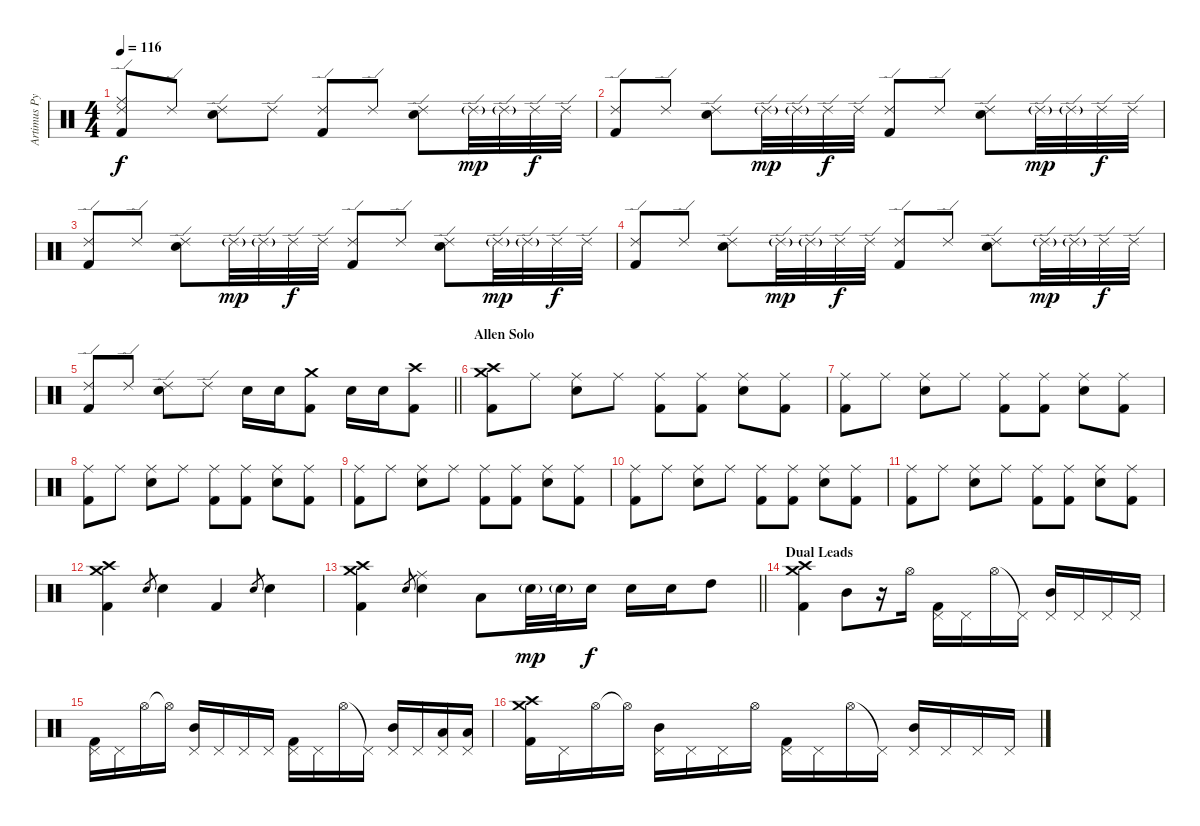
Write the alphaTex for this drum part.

\track ("Artimus Pyle - Drums and Percussion" "Artimus Py") {instrument percussion}
\staff {score}
\articulation defaults
\ts (4 4)
\tempo 116
\clef neutral
\ks c
("Ride (edge) 2" "Ride (middle)" "Kick (hit) 2").8{dy f} "Ride (edge) 2".8 ("Ride (edge) 2" "Snare (hit) 2").8 "Ride (edge) 2".8 ("Ride (edge) 2" "Kick (hit) 2").8 "Ride (edge) 2".8 ("Ride (edge) 2" "Snare (hit) 2").8 "Ride (edge) 2"{g}.32{dy mp} "Ride (edge) 2"{g}.32 "Ride (edge) 2".32{dy f} "Ride (edge) 2".32 |
("Ride (edge) 2" "Kick (hit) 2").8 "Ride (edge) 2".8 ("Ride (edge) 2" "Snare (hit) 2").8 "Ride (edge) 2"{g}.32{dy mp} "Ride (edge) 2"{g}.32 "Ride (edge) 2".32{dy f} "Ride (edge) 2".32 ("Ride (edge) 2" "Kick (hit) 2").8 "Ride (edge) 2".8 ("Ride (edge) 2" "Snare (hit) 2").8 "Ride (edge) 2"{g}.32{dy mp} "Ride (edge) 2"{g}.32 "Ride (edge) 2".32{dy f} "Ride (edge) 2".32 |
("Ride (edge) 2" "Kick (hit) 2").8 "Ride (edge) 2".8 ("Ride (edge) 2" "Snare (hit) 2").8 "Ride (edge) 2"{g}.32{dy mp} "Ride (edge) 2"{g}.32 "Ride (edge) 2".32{dy f} "Ride (edge) 2".32 ("Ride (edge) 2" "Kick (hit) 2").8 "Ride (edge) 2".8 ("Ride (edge) 2" "Snare (hit) 2").8 "Ride (edge) 2"{g}.32{dy mp} "Ride (edge) 2"{g}.32 "Ride (edge) 2".32{dy f} "Ride (edge) 2".32 |
("Ride (edge) 2" "Kick (hit) 2").8 "Ride (edge) 2".8 ("Ride (edge) 2" "Snare (hit) 2").8 "Ride (edge) 2"{g}.32{dy mp} "Ride (edge) 2"{g}.32 "Ride (edge) 2".32{dy f} "Ride (edge) 2".32 ("Ride (edge) 2" "Kick (hit) 2").8 "Ride (edge) 2".8 ("Ride (edge) 2" "Snare (hit) 2").8 "Ride (edge) 2"{g}.32{dy mp} "Ride (edge) 2"{g}.32 "Ride (edge) 2".32{dy f} "Ride (edge) 2".32 |
\barLineRight lightlight
("Ride (edge) 2" "Kick (hit) 2").8 "Ride (edge) 2".8 ("Ride (edge) 2" "Snare (hit) 2").8 "Ride (edge) 2".8 "Snare (hit) 2".16 "Snare (hit) 2".16 ("Crash medium (hit)" "Kick (hit) 2").8 "Snare (hit) 2".16 "Snare (hit) 2".16 ("Crash high (hit)" "Kick (hit) 2").8 |
\section ("" "Allen Solo")
("Crash medium (hit)" "Crash high (hit)" "Kick (hit) 2").8 "Ride (middle)".8 ("Ride (middle)" "Snare (hit) 2").8 "Ride (middle)".8 ("Ride (middle)" "Kick (hit) 2").8 ("Ride (middle)" "Kick (hit) 2").8 ("Ride (middle)" "Snare (hit) 2").8 ("Ride (middle)" "Kick (hit) 2").8 |
("Ride (middle)" "Kick (hit) 2").8 "Ride (middle)".8 ("Ride (middle)" "Snare (hit) 2").8 "Ride (middle)".8 ("Ride (middle)" "Kick (hit) 2").8 ("Ride (middle)" "Kick (hit) 2").8 ("Ride (middle)" "Snare (hit) 2").8 ("Ride (middle)" "Kick (hit) 2").8 |
("Ride (middle)" "Kick (hit) 2").8 "Ride (middle)".8 ("Ride (middle)" "Snare (hit) 2").8 "Ride (middle)".8 ("Ride (middle)" "Kick (hit) 2").8 ("Ride (middle)" "Kick (hit) 2").8 ("Ride (middle)" "Snare (hit) 2").8 ("Ride (middle)" "Kick (hit) 2").8 |
("Ride (middle)" "Kick (hit) 2").8 "Ride (middle)".8 ("Ride (middle)" "Snare (hit) 2").8 "Ride (middle)".8 ("Ride (middle)" "Kick (hit) 2").8 ("Ride (middle)" "Kick (hit) 2").8 ("Ride (middle)" "Snare (hit) 2").8 ("Ride (middle)" "Kick (hit) 2").8 |
("Ride (middle)" "Kick (hit) 2").8 "Ride (middle)".8 ("Ride (middle)" "Snare (hit) 2").8 "Ride (middle)".8 ("Ride (middle)" "Kick (hit) 2").8 ("Ride (middle)" "Kick (hit) 2").8 ("Ride (middle)" "Snare (hit) 2").8 ("Ride (middle)" "Kick (hit) 2").8 |
("Ride (middle)" "Kick (hit) 2").8 "Ride (middle)".8 ("Ride (middle)" "Snare (hit) 2").8 "Ride (middle)".8 ("Ride (middle)" "Kick (hit) 2").8 ("Ride (middle)" "Kick (hit) 2").8 ("Ride (middle)" "Snare (hit) 2").8 ("Ride (middle)" "Kick (hit) 2").8 |
("Crash medium (hit)" "Crash high (hit)" "Kick (hit) 2").4 "Snare (hit) 2".8{gr} "Snare (hit) 2".4 "Kick (hit) 2".4 "Snare (hit) 2".8{gr} "Snare (hit) 2".4 |
\barLineRight lightlight
("Crash medium (hit)" "Crash high (hit)" "Kick (hit) 2").4 "Snare (hit) 2".8{gr} ("Ride (middle)" "Snare (hit) 2").4 "Low Floor Tom (hit)".8 "Snare (hit) 2"{g}.32{dy mp} "Snare (hit) 2"{g}.32 "Snare (hit) 2".16{dy f} "Snare (hit) 2".16 "Snare (hit) 2".16 "High Tom (hit)".8 |
\section ("" "Dual Leads")
("Crash medium (hit)" "Crash high (hit)" "Kick (hit) 2").4 "Mid Tom (hit)".8 r.16 "Hi-Hat (open)".16 ("Pedal Hi-Hat (hit)" "Kick (hit) 2").16 "Pedal Hi-Hat (hit)".16 "Hi-Hat (open)".16 "Pedal Hi-Hat (hit)"{t}.16 ("Pedal Hi-Hat (hit)" "Mid Tom (hit)").16 "Pedal Hi-Hat (hit)".16 "Pedal Hi-Hat (hit)".16 "Pedal Hi-Hat (hit)".16 |
("Pedal Hi-Hat (hit)" "Kick (hit) 2").16 "Pedal Hi-Hat (hit)".16 "Hi-Hat (open)".16 "Hi-Hat (open)"{t}.16 ("Pedal Hi-Hat (hit)" "Mid Tom (hit)").16 "Pedal Hi-Hat (hit)".16 "Pedal Hi-Hat (hit)".16 "Pedal Hi-Hat (hit)".16 ("Pedal Hi-Hat (hit)" "Kick (hit) 2").16 "Pedal Hi-Hat (hit)".16 "Hi-Hat (open)".16 "Pedal Hi-Hat (hit)"{t}.16 ("Pedal Hi-Hat (hit)" "Mid Tom (hit)").16 "Pedal Hi-Hat (hit)".16 ("Pedal Hi-Hat (hit)" "Low Floor Tom (hit)").16 ("Pedal Hi-Hat (hit)" "Low Floor Tom (hit)").16 |
("Crash high (hit)" "Crash medium (hit)" "Kick (hit) 2").16 "Pedal Hi-Hat (hit)".16 "Hi-Hat (open)".16 "Hi-Hat (open)"{t}.16 ("Pedal Hi-Hat (hit)" "Mid Tom (hit)").16 "Pedal Hi-Hat (hit)".16 "Pedal Hi-Hat (hit)".16 "Hi-Hat (open)".16 ("Pedal Hi-Hat (hit)" "Kick (hit) 2").16 "Pedal Hi-Hat (hit)".16 "Hi-Hat (open)".16 "Pedal Hi-Hat (hit)"{t}.16 ("Pedal Hi-Hat (hit)" "Mid Tom (hit)").16 "Pedal Hi-Hat (hit)".16 "Pedal Hi-Hat (hit)".16 "Pedal Hi-Hat (hit)".16
